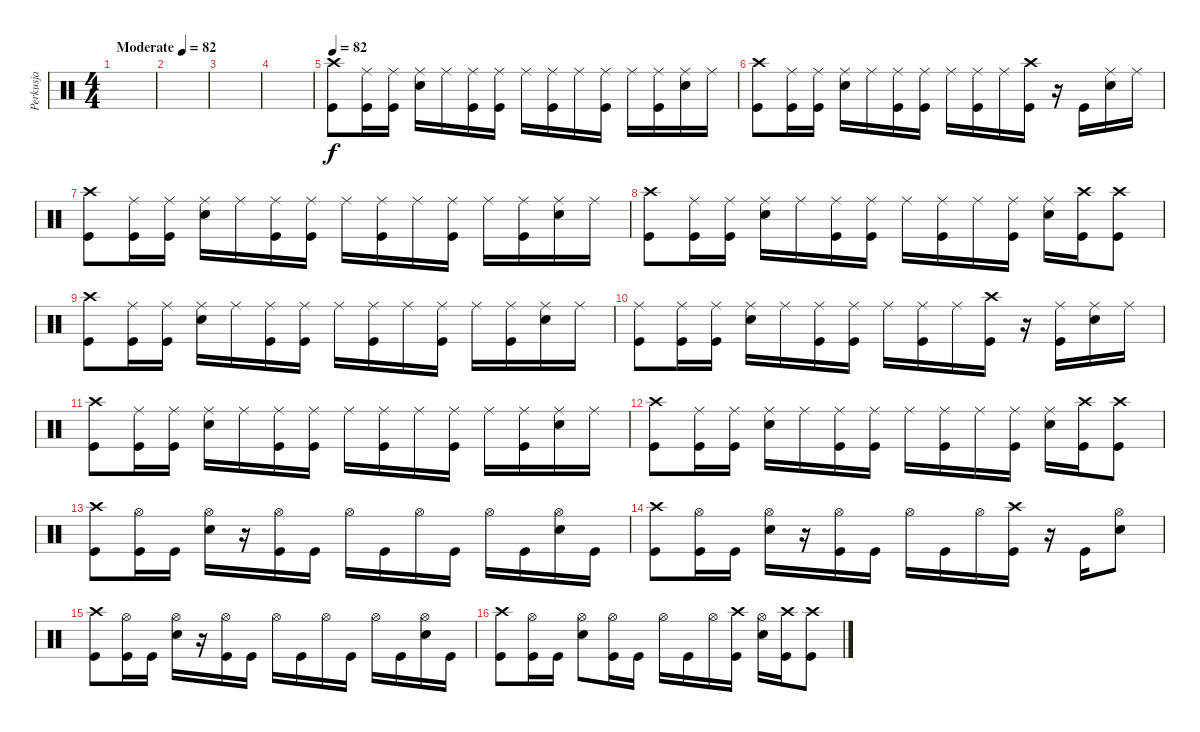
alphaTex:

\track ("Perkusja" "Perkusja") {instrument percussion}
\staff {score}
\articulation defaults
\ts (4 4)
\tempo (82 "Moderate")
\tempo 90
\tempo (82 "Moderate")
\clef neutral
\ks c
|
|
|
|
\tempo 82
("Crash high (hit)" "Kick (hit)").8 ("Ride (middle)" "Kick (hit)").16 ("Ride (middle)" "Kick (hit)").16 ("Ride (middle)" "Electric Snare (hit)").16 "Ride (middle)".16 ("Ride (middle)" "Kick (hit)").16 ("Ride (middle)" "Kick (hit)").16 "Ride (middle)".16 ("Ride (middle)" "Kick (hit)").16 "Ride (middle)".16 ("Ride (middle)" "Kick (hit)").16 "Ride (middle)".16 ("Ride (middle)" "Kick (hit)").16 ("Ride (middle)" "Electric Snare (hit)").16 "Ride (middle)".16 |
("Crash high (hit)" "Kick (hit)").8 ("Ride (middle)" "Kick (hit)").16 ("Ride (middle)" "Kick (hit)").16 ("Ride (middle)" "Electric Snare (hit)").16 "Ride (middle)".16 ("Ride (middle)" "Kick (hit)").16 ("Ride (middle)" "Kick (hit)").16 "Ride (middle)".16 ("Ride (middle)" "Kick (hit)").16 "Ride (middle)".16 ("Crash high (hit)" "Kick (hit)").16 r.16 "Kick (hit)".16 ("Ride (middle)" "Electric Snare (hit)").16 "Ride (middle)".16 |
("Crash high (hit)" "Kick (hit)").8 ("Ride (middle)" "Kick (hit)").16 ("Ride (middle)" "Kick (hit)").16 ("Ride (middle)" "Electric Snare (hit)").16 "Ride (middle)".16 ("Ride (middle)" "Kick (hit)").16 ("Ride (middle)" "Kick (hit)").16 "Ride (middle)".16 ("Ride (middle)" "Kick (hit)").16 "Ride (middle)".16 ("Ride (middle)" "Kick (hit)").16 "Ride (middle)".16 ("Ride (middle)" "Kick (hit)").16 ("Ride (middle)" "Electric Snare (hit)").16 "Ride (middle)".16 |
("Crash high (hit)" "Kick (hit)").8 ("Ride (middle)" "Kick (hit)").16 ("Ride (middle)" "Kick (hit)").16 ("Ride (middle)" "Electric Snare (hit)").16 "Ride (middle)".16 ("Ride (middle)" "Kick (hit)").16 ("Ride (middle)" "Kick (hit)").16 "Ride (middle)".16 ("Ride (middle)" "Kick (hit)").16 "Ride (middle)".16 ("Ride (middle)" "Kick (hit)").16 ("Ride (middle)" "Electric Snare (hit)").16 ("Crash high (hit)" "Kick (hit)").16 ("Crash high (hit)" "Kick (hit)").8 |
("Crash high (hit)" "Kick (hit)").8 ("Ride (middle)" "Kick (hit)").16 ("Ride (middle)" "Kick (hit)").16 ("Ride (middle)" "Electric Snare (hit)").16 "Ride (middle)".16 ("Ride (middle)" "Kick (hit)").16 ("Ride (middle)" "Kick (hit)").16 "Ride (middle)".16 ("Ride (middle)" "Kick (hit)").16 "Ride (middle)".16 ("Ride (middle)" "Kick (hit)").16 "Ride (middle)".16 ("Ride (middle)" "Kick (hit)").16 ("Ride (middle)" "Electric Snare (hit)").16 "Ride (middle)".16 |
("Ride (middle)" "Kick (hit)").8 ("Ride (middle)" "Kick (hit)").16 ("Ride (middle)" "Kick (hit)").16 ("Ride (middle)" "Electric Snare (hit)").16 "Ride (middle)".16 ("Ride (middle)" "Kick (hit)").16 ("Ride (middle)" "Kick (hit)").16 "Ride (middle)".16 ("Ride (middle)" "Kick (hit)").16 "Ride (middle)".16 ("Crash high (hit)" "Kick (hit)").16 r.16 ("Ride (middle)" "Kick (hit)").16 ("Ride (middle)" "Electric Snare (hit)").16 "Ride (middle)".16 |
("Crash high (hit)" "Kick (hit)").8 ("Ride (middle)" "Kick (hit)").16 ("Ride (middle)" "Kick (hit)").16 ("Ride (middle)" "Electric Snare (hit)").16 "Ride (middle)".16 ("Ride (middle)" "Kick (hit)").16 ("Ride (middle)" "Kick (hit)").16 "Ride (middle)".16 ("Ride (middle)" "Kick (hit)").16 "Ride (middle)".16 ("Ride (middle)" "Kick (hit)").16 "Ride (middle)".16 ("Ride (middle)" "Kick (hit)").16 ("Ride (middle)" "Electric Snare (hit)").16 "Ride (middle)".16 |
("Crash high (hit)" "Kick (hit)").8 ("Ride (middle)" "Kick (hit)").16 ("Ride (middle)" "Kick (hit)").16 ("Ride (middle)" "Electric Snare (hit)").16 "Ride (middle)".16 ("Ride (middle)" "Kick (hit)").16 ("Ride (middle)" "Kick (hit)").16 "Ride (middle)".16 ("Ride (middle)" "Kick (hit)").16 "Ride (middle)".16 ("Ride (middle)" "Kick (hit)").16 ("Ride (middle)" "Electric Snare (hit)").16 ("Crash high (hit)" "Kick (hit)").16 ("Crash high (hit)" "Kick (hit)").8 |
("Crash high (hit)" "Kick (hit)").8 ("Hi-Hat (open)" "Kick (hit)").16 "Kick (hit)".16 ("Hi-Hat (open)" "Electric Snare (hit)").16 r.16 ("Hi-Hat (open)" "Kick (hit)").16 "Kick (hit)".16 "Hi-Hat (open)".16 "Kick (hit)".16 "Hi-Hat (open)".16 "Kick (hit)".16 "Hi-Hat (open)".16 "Kick (hit)".16 ("Hi-Hat (open)" "Electric Snare (hit)").16 "Kick (hit)".16 |
("Crash high (hit)" "Kick (hit)").8 ("Hi-Hat (open)" "Kick (hit)").16 "Kick (hit)".16 ("Hi-Hat (open)" "Electric Snare (hit)").16 r.16 ("Hi-Hat (open)" "Kick (hit)").16 "Kick (hit)".16 "Hi-Hat (open)".16 "Kick (hit)".16 "Hi-Hat (open)".16 ("Crash high (hit)" "Kick (hit)").16 r.16 "Kick (hit)".16 ("Hi-Hat (open)" "Electric Snare (hit)").8 |
("Crash high (hit)" "Kick (hit)").8 ("Hi-Hat (open)" "Kick (hit)").16 "Kick (hit)".16 ("Hi-Hat (open)" "Electric Snare (hit)").16 r.16 ("Hi-Hat (open)" "Kick (hit)").16 "Kick (hit)".16 "Hi-Hat (open)".16 "Kick (hit)".16 "Hi-Hat (open)".16 "Kick (hit)".16 "Hi-Hat (open)".16 "Kick (hit)".16 ("Hi-Hat (open)" "Electric Snare (hit)").16 "Kick (hit)".16 |
("Crash high (hit)" "Kick (hit)").8 ("Hi-Hat (open)" "Kick (hit)").16 "Kick (hit)".16 ("Hi-Hat (open)" "Electric Snare (hit)").8 ("Hi-Hat (open)" "Kick (hit)").16 "Kick (hit)".16 "Hi-Hat (open)".16 "Kick (hit)".16 "Hi-Hat (open)".16 ("Crash high (hit)" "Kick (hit)").16 ("Hi-Hat (open)" "Electric Snare (hit)").16 ("Crash high (hit)" "Kick (hit)").16 ("Crash high (hit)" "Kick (hit)").8
